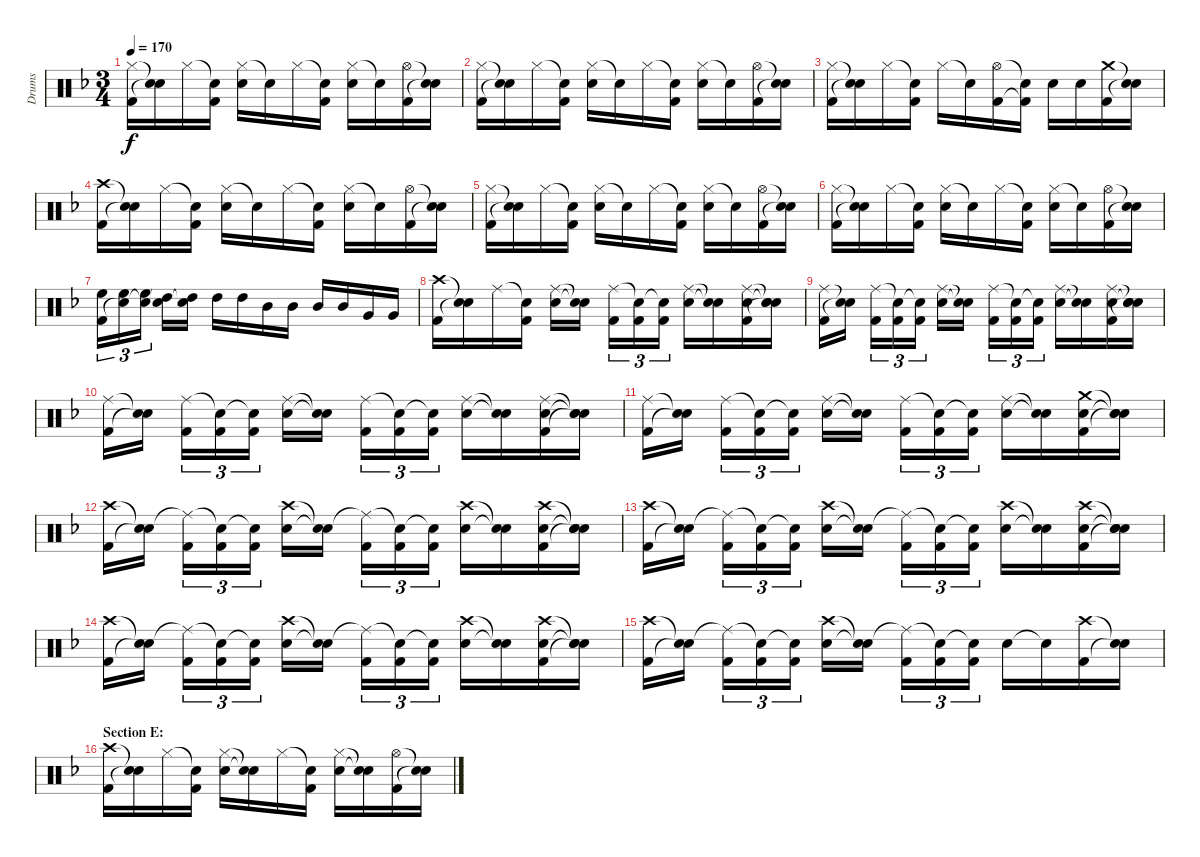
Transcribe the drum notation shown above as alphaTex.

\track ("Drums" "Drums") {instrument percussion}
\staff {score}
\articulation defaults
\ts (3 4)
\tempo 170
\clef neutral
\ks f
("Hi-Hat (closed)" "Kick (hit) 2").16{dy f} ("Snare (hit)"{t} "Snare (hit)"{t}).16 "Hi-Hat (closed)".16 ("Snare (hit)"{t} "Kick (hit) 2").16 ("Hi-Hat (closed)" "Snare (hit) 2").16 "Snare (hit)"{t}.16 "Hi-Hat (closed)".16 ("Snare (hit)"{t} "Kick (hit) 2").16 ("Hi-Hat (closed)" "Snare (hit) 2").16 "Snare (hit)"{t}.16 ("Hi-Hat (open)" "Kick (hit) 2").16 ("Snare (hit)"{t} "Snare (hit)"{t}).16 |
("Hi-Hat (closed)" "Kick (hit) 2").16 ("Snare (hit)"{t} "Snare (hit)"{t}).16 "Hi-Hat (closed)".16 ("Snare (hit)"{t} "Kick (hit) 2").16 ("Hi-Hat (closed)" "Snare (hit) 2").16 "Snare (hit)"{t}.16 "Hi-Hat (closed)".16 ("Snare (hit)"{t} "Kick (hit) 2").16 ("Hi-Hat (closed)" "Snare (hit) 2").16 "Snare (hit)"{t}.16 ("Hi-Hat (open)" "Kick (hit) 2").16 ("Snare (hit)"{t} "Snare (hit)"{t}).16 |
("Hi-Hat (closed)" "Kick (hit) 2").16 ("Snare (hit)"{t} "Snare (hit)"{t}).16 "Hi-Hat (closed)".16 ("Snare (hit)"{t} "Kick (hit) 2").16 "Hi-Hat (closed)".16 "Snare (hit)"{t}.16 ("Hi-Hat (open)" "Kick (hit) 2").16 ("Snare (hit)"{t} "Kick (hit) 2"{t}).16 "Snare (hit) 2".16 "Snare (hit) 2".16 ("Crash medium (hit)" "Kick (hit) 2").16 ("Snare (hit)"{t} "Snare (hit)"{t}).16 |
("Crash high (hit)" "Kick (hit) 2").16 ("Snare (hit)"{t} "Snare (hit)"{t}).16 "Hi-Hat (closed)".16 ("Snare (hit)"{t} "Kick (hit) 2").16 ("Hi-Hat (closed)" "Snare (hit) 2").16 "Snare (hit)"{t}.16 "Hi-Hat (closed)".16 ("Snare (hit)"{t} "Kick (hit) 2").16 ("Hi-Hat (closed)" "Snare (hit) 2").16 "Snare (hit)"{t}.16 ("Hi-Hat (open)" "Kick (hit) 2").16 ("Snare (hit)"{t} "Snare (hit)"{t}).16 |
("Hi-Hat (closed)" "Kick (hit) 2").16 ("Snare (hit)"{t} "Snare (hit)"{t}).16 "Hi-Hat (closed)".16 ("Snare (hit)"{t} "Kick (hit) 2").16 ("Hi-Hat (closed)" "Snare (hit) 2").16 "Snare (hit)"{t}.16 "Hi-Hat (closed)".16 ("Snare (hit)"{t} "Kick (hit) 2").16 ("Hi-Hat (closed)" "Snare (hit) 2").16 "Snare (hit)"{t}.16 ("Hi-Hat (open)" "Kick (hit) 2").16 ("Snare (hit)"{t} "Snare (hit)"{t}).16 |
("Hi-Hat (closed)" "Kick (hit) 2").16 ("Snare (hit)"{t} "Snare (hit)"{t}).16 "Hi-Hat (closed)".16 ("Snare (hit)"{t} "Kick (hit) 2").16 ("Hi-Hat (closed)" "Snare (hit) 2").16 "Snare (hit)"{t}.16 "Hi-Hat (closed)".16 ("Snare (hit)"{t} "Kick (hit) 2").16 ("Hi-Hat (closed)" "Snare (hit) 2").16 "Snare (hit)"{t}.16 ("Hi-Hat (open)" "Kick (hit) 2").16 ("Snare (hit)"{t} "Snare (hit)"{t}).16 |
("High Floor Tom (hit)" "Kick (hit) 2").16{tu (3 2)} ("High Floor Tom (hit)" "Snare (hit)"{t}).16{tu (3 2)} ("High Floor Tom (hit)" "Snare (hit)"{t}).16{tu (3 2)} ("High Tom (hit)" "Snare (hit)"{t}).16 ("High Tom (hit)" "Snare (hit)"{t}).16 "High Tom (hit)".16 "High Tom (hit)".16 "Mid Tom (hit)".16 "Mid Tom (hit)".16 "Mid Tom (hit)".16 "Mid Tom (hit)".16 "Very Low Tom (hit)".16 "Very Low Tom (hit)".16 |
("Crash high (hit)" "Kick (hit) 2").16 ("Snare (hit)"{t} "Snare (hit)"{t}).16 "Ride (middle)".16 ("Snare (hit)"{t} "Kick (hit) 2").16 ("Ride (middle)" "Snare (hit) 2").16 ("Snare (hit)"{t} "Snare (hit)"{t}).16 ("Ride (middle)" "Kick (hit) 2").16{tu (3 2)} ("Snare (hit)"{t} "Kick (hit) 2").16{tu (3 2)} ("Snare (hit)"{t} "Kick (hit) 2").16{tu (3 2)} ("Ride (middle)" "Snare (hit) 2").16 ("Snare (hit)"{t} "Snare (hit)"{t}).16 ("Ride (middle)" "Snare (hit) 2" "Kick (hit) 2").16 ("Snare (hit)"{t} "Snare (hit)"{t} "Snare (hit)"{t}).16 |
("Ride (middle)" "Kick (hit) 2").16 ("Snare (hit)"{t} "Snare (hit)"{t}).16 ("Ride (middle)" "Kick (hit) 2").16{tu (3 2)} ("Snare (hit)"{t} "Kick (hit) 2").16{tu (3 2)} ("Snare (hit)"{t} "Kick (hit) 2").16{tu (3 2)} ("Ride (middle)" "Snare (hit) 2").16 ("Snare (hit)"{t} "Snare (hit)"{t}).16 ("Ride (middle)" "Kick (hit) 2").16{tu (3 2)} ("Snare (hit)"{t} "Kick (hit) 2").16{tu (3 2)} ("Snare (hit)"{t} "Kick (hit) 2").16{tu (3 2)} ("Ride (middle)" "Snare (hit) 2").16 ("Snare (hit)"{t} "Snare (hit)"{t}).16 ("Ride (middle)" "Snare (hit) 2" "Kick (hit) 2").16 ("Snare (hit)"{t} "Snare (hit)"{t} "Snare (hit)"{t}).16 |
("Ride (middle)" "Kick (hit) 2").16 ("Snare (hit)"{t} "Snare (hit)"{t}).16 ("Ride (middle)" "Kick (hit) 2").16{tu (3 2)} ("Snare (hit)"{t} "Kick (hit) 2").16{tu (3 2)} ("Snare (hit)"{t} "Kick (hit) 2").16{tu (3 2)} ("Ride (middle)" "Snare (hit) 2").16 ("Snare (hit)"{t} "Snare (hit)"{t}).16 ("Ride (middle)" "Kick (hit) 2").16{tu (3 2)} ("Snare (hit)"{t} "Kick (hit) 2").16{tu (3 2)} ("Snare (hit)"{t} "Kick (hit) 2").16{tu (3 2)} ("Ride (middle)" "Snare (hit) 2").16 ("Snare (hit)"{t} "Snare (hit)"{t}).16 ("Ride (middle)" "Snare (hit) 2" "Kick (hit) 2").16 ("Snare (hit)"{t} "Snare (hit)"{t} "Snare (hit)"{t}).16 |
("Ride (middle)" "Kick (hit) 2").16 ("Snare (hit)"{t} "Snare (hit)"{t}).16 ("Ride (middle)" "Kick (hit) 2").16{tu (3 2)} ("Snare (hit)"{t} "Kick (hit) 2").16{tu (3 2)} ("Snare (hit)"{t} "Kick (hit) 2").16{tu (3 2)} ("Ride (middle)" "Snare (hit) 2").16 ("Snare (hit)"{t} "Snare (hit)"{t}).16 ("Ride (middle)" "Kick (hit) 2").16{tu (3 2)} ("Snare (hit)"{t} "Kick (hit) 2").16{tu (3 2)} ("Snare (hit)"{t} "Kick (hit) 2").16{tu (3 2)} ("Ride (middle)" "Snare (hit) 2").16 ("Snare (hit)"{t} "Snare (hit)"{t}).16 ("Crash medium (hit)" "Snare (hit) 2" "Kick (hit) 2").16 ("Snare (hit)"{t} "Snare (hit)"{t} "Snare (hit)"{t}).16 |
("Crash high (hit)" "Kick (hit) 2").16 ("Snare (hit)"{t} "Snare (hit)"{t}).16 ("Ride (middle)"{t} "Kick (hit) 2").16{tu (3 2)} ("Snare (hit)"{t} "Kick (hit) 2").16{tu (3 2)} ("Snare (hit)"{t} "Kick (hit) 2").16{tu (3 2)} ("Crash high (hit)" "Snare (hit) 2").16 ("Snare (hit)"{t} "Snare (hit)"{t}).16 ("Ride (middle)"{t} "Kick (hit) 2").16{tu (3 2)} ("Snare (hit)"{t} "Kick (hit) 2").16{tu (3 2)} ("Snare (hit)"{t} "Kick (hit) 2").16{tu (3 2)} ("Crash high (hit)" "Snare (hit) 2").16 ("Snare (hit)"{t} "Snare (hit)"{t}).16 ("Crash high (hit)" "Snare (hit) 2" "Kick (hit) 2").16 ("Snare (hit)"{t} "Snare (hit)"{t} "Snare (hit)"{t}).16 |
("Crash high (hit)" "Kick (hit) 2").16 ("Snare (hit)"{t} "Snare (hit)"{t}).16 ("Ride (middle)"{t} "Kick (hit) 2").16{tu (3 2)} ("Snare (hit)"{t} "Kick (hit) 2").16{tu (3 2)} ("Snare (hit)"{t} "Kick (hit) 2").16{tu (3 2)} ("Crash high (hit)" "Snare (hit) 2").16 ("Snare (hit)"{t} "Snare (hit)"{t}).16 ("Ride (middle)"{t} "Kick (hit) 2").16{tu (3 2)} ("Snare (hit)"{t} "Kick (hit) 2").16{tu (3 2)} ("Snare (hit)"{t} "Kick (hit) 2").16{tu (3 2)} ("Crash high (hit)" "Snare (hit) 2").16 ("Snare (hit)"{t} "Snare (hit)"{t}).16 ("Crash high (hit)" "Snare (hit) 2" "Kick (hit) 2").16 ("Snare (hit)"{t} "Snare (hit)"{t} "Snare (hit)"{t}).16 |
("Crash high (hit)" "Kick (hit) 2").16 ("Snare (hit)"{t} "Snare (hit)"{t}).16 ("Ride (middle)"{t} "Kick (hit) 2").16{tu (3 2)} ("Snare (hit)"{t} "Kick (hit) 2").16{tu (3 2)} ("Snare (hit)"{t} "Kick (hit) 2").16{tu (3 2)} ("Crash high (hit)" "Snare (hit) 2").16 ("Snare (hit)"{t} "Snare (hit)"{t}).16 ("Ride (middle)"{t} "Kick (hit) 2").16{tu (3 2)} ("Snare (hit)"{t} "Kick (hit) 2").16{tu (3 2)} ("Snare (hit)"{t} "Kick (hit) 2").16{tu (3 2)} ("Crash high (hit)" "Snare (hit) 2").16 ("Snare (hit)"{t} "Snare (hit)"{t}).16 ("Crash high (hit)" "Snare (hit) 2" "Kick (hit) 2").16 ("Snare (hit)"{t} "Snare (hit)"{t} "Snare (hit)"{t}).16 |
("Crash high (hit)" "Kick (hit) 2").16 ("Snare (hit)"{t} "Snare (hit)"{t}).16 ("Ride (middle)"{t} "Kick (hit) 2").16{tu (3 2)} ("Snare (hit)"{t} "Kick (hit) 2").16{tu (3 2)} ("Snare (hit)"{t} "Kick (hit) 2").16{tu (3 2)} ("Crash high (hit)" "Snare (hit) 2").16 ("Snare (hit)"{t} "Snare (hit)"{t}).16 ("Ride (middle)"{t} "Kick (hit) 2").16{tu (3 2)} ("Snare (hit)"{t} "Kick (hit) 2").16{tu (3 2)} ("Snare (hit)"{t} "Kick (hit) 2").16{tu (3 2)} "Snare (hit) 2".16 "Snare (hit)"{t}.16 ("Crash high (hit)" "Kick (hit) 2").16 ("Snare (hit)"{t} "Snare (hit)"{t}).16 |
\section ("" "Section E:")
("Crash high (hit)" "Kick (hit) 2").16 ("Snare (hit)"{t} "Snare (hit)"{t}).16 "Hi-Hat (closed)".16 ("Snare (hit)"{t} "Kick (hit) 2").16 ("Hi-Hat (closed)" "Snare (hit) 2").16 ("Snare (hit)"{t} "Snare (hit)"{t}).16 "Hi-Hat (closed)".16 ("Snare (hit)"{t} "Kick (hit) 2").16 ("Hi-Hat (closed)" "Snare (hit) 2").16 ("Snare (hit)"{t} "Snare (hit)"{t}).16 ("Hi-Hat (open)" "Kick (hit) 2").16 ("Snare (hit)"{t} "Snare (hit)"{t}).16
